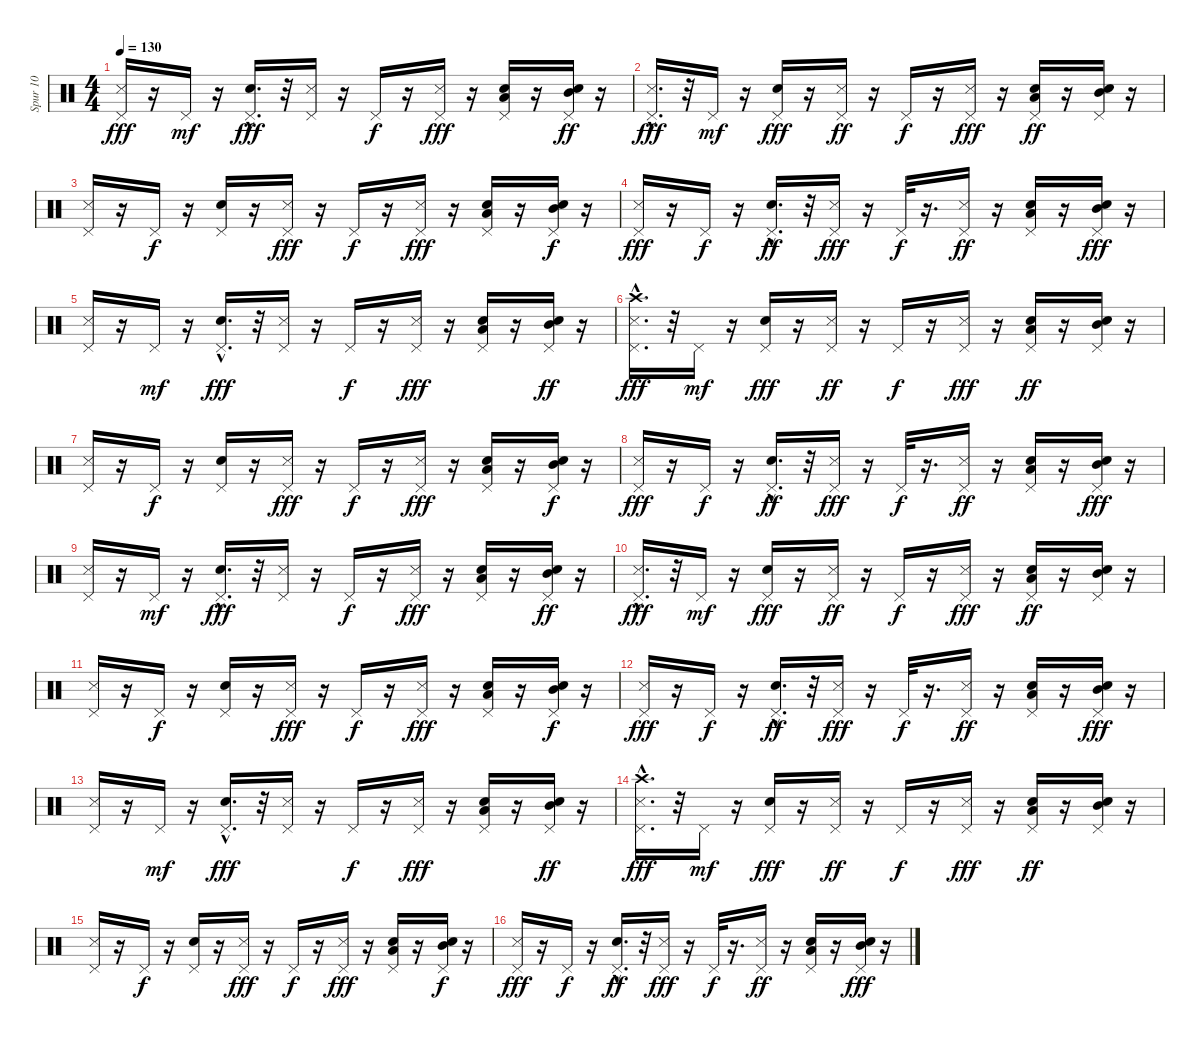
\track ("Spur 10" "Spur 10") {instrument percussion}
\staff {score}
\articulation defaults
\ts (4 4)
\tempo 130
\clef neutral
\ks c
("Pedal Hi-Hat (hit)" "Metronome (hit)").16{dy fff} r.16 "Pedal Hi-Hat (hit)".16{dy mf} r.16 ("Pedal Hi-Hat (hit)" "Snare (hit) 2"{hac}).16{d dy fff} r.32 ("Pedal Hi-Hat (hit)" "Metronome (hit)").16 r.16 "Pedal Hi-Hat (hit)".16{dy f} r.16 ("Pedal Hi-Hat (hit)" "Metronome (hit)").16{dy fff} r.16 ("Low Tom (hit)" "Pedal Hi-Hat (hit)" "Snare (hit) 2").16 r.16 ("Mid Tom (hit)" "Pedal Hi-Hat (hit)" "Snare (hit) 2").16{dy ff} r.16 |
("Pedal Hi-Hat (hit)" "Metronome (hit)"{hac}).16{d dy fff} r.32 "Pedal Hi-Hat (hit)".16{dy mf} r.16 ("Pedal Hi-Hat (hit)" "Snare (hit) 2").16{dy fff} r.16 ("Metronome (hit)" "Pedal Hi-Hat (hit)").16{dy ff} r.16 "Pedal Hi-Hat (hit)".16{dy f} r.16 ("Metronome (hit)" "Pedal Hi-Hat (hit)").16{dy fff} r.16 ("Snare (hit) 2" "Low Tom (hit)" "Pedal Hi-Hat (hit)").16{dy ff} r.16 ("Snare (hit) 2" "Mid Tom (hit)" "Pedal Hi-Hat (hit)").16 r.16 |
("Metronome (hit)" "Pedal Hi-Hat (hit)").16 r.16 "Pedal Hi-Hat (hit)".16{dy f} r.16 ("Snare (hit) 2" "Pedal Hi-Hat (hit)").16 r.16 ("Metronome (hit)" "Pedal Hi-Hat (hit)").16{dy fff} r.16 "Pedal Hi-Hat (hit)".16{dy f} r.16 ("Metronome (hit)" "Pedal Hi-Hat (hit)").16{dy fff} r.16 ("Snare (hit) 2" "Low Tom (hit)" "Pedal Hi-Hat (hit)").16 r.16 ("Snare (hit) 2" "Mid Tom (hit)" "Pedal Hi-Hat (hit)").16{dy f} r.16 |
("Pedal Hi-Hat (hit)" "Metronome (hit)").16{dy fff} r.16 "Pedal Hi-Hat (hit)".16{dy f} r.16 ("Snare (hit) 2"{hac} "Pedal Hi-Hat (hit)").16{d dy ff} r.32 ("Metronome (hit)" "Pedal Hi-Hat (hit)").16{dy fff} r.16 "Pedal Hi-Hat (hit)".32{dy f} r.16{d} ("Metronome (hit)" "Pedal Hi-Hat (hit)").16{dy ff} r.16 ("Low Tom (hit)" "Snare (hit) 2" "Pedal Hi-Hat (hit)").16 r.16 ("Mid Tom (hit)" "Snare (hit) 2" "Pedal Hi-Hat (hit)").16{dy fff} r.16 |
("Pedal Hi-Hat (hit)" "Metronome (hit)").16 r.16 "Pedal Hi-Hat (hit)".16{dy mf} r.16 ("Pedal Hi-Hat (hit)" "Snare (hit) 2"{hac}).16{d dy fff} r.32 ("Pedal Hi-Hat (hit)" "Metronome (hit)").16 r.16 "Pedal Hi-Hat (hit)".16{dy f} r.16 ("Pedal Hi-Hat (hit)" "Metronome (hit)").16{dy fff} r.16 ("Low Tom (hit)" "Pedal Hi-Hat (hit)" "Snare (hit) 2").16 r.16 ("Mid Tom (hit)" "Pedal Hi-Hat (hit)" "Snare (hit) 2").16{dy ff} r.16 |
("Crash high (hit)" "Pedal Hi-Hat (hit)" "Metronome (hit)"{hac}).16{d dy fff} r.32 "Pedal Hi-Hat (hit)".16{dy mf} r.16 ("Pedal Hi-Hat (hit)" "Snare (hit) 2").16{dy fff} r.16 ("Metronome (hit)" "Pedal Hi-Hat (hit)").16{dy ff} r.16 "Pedal Hi-Hat (hit)".16{dy f} r.16 ("Metronome (hit)" "Pedal Hi-Hat (hit)").16{dy fff} r.16 ("Snare (hit) 2" "Low Tom (hit)" "Pedal Hi-Hat (hit)").16{dy ff} r.16 ("Snare (hit) 2" "Mid Tom (hit)" "Pedal Hi-Hat (hit)").16 r.16 |
("Metronome (hit)" "Pedal Hi-Hat (hit)").16 r.16 "Pedal Hi-Hat (hit)".16{dy f} r.16 ("Snare (hit) 2" "Pedal Hi-Hat (hit)").16 r.16 ("Metronome (hit)" "Pedal Hi-Hat (hit)").16{dy fff} r.16 "Pedal Hi-Hat (hit)".16{dy f} r.16 ("Metronome (hit)" "Pedal Hi-Hat (hit)").16{dy fff} r.16 ("Snare (hit) 2" "Low Tom (hit)" "Pedal Hi-Hat (hit)").16 r.16 ("Snare (hit) 2" "Mid Tom (hit)" "Pedal Hi-Hat (hit)").16{dy f} r.16 |
("Pedal Hi-Hat (hit)" "Metronome (hit)").16{dy fff} r.16 "Pedal Hi-Hat (hit)".16{dy f} r.16 ("Snare (hit) 2"{hac} "Pedal Hi-Hat (hit)").16{d dy ff} r.32 ("Metronome (hit)" "Pedal Hi-Hat (hit)").16{dy fff} r.16 "Pedal Hi-Hat (hit)".32{dy f} r.16{d} ("Metronome (hit)" "Pedal Hi-Hat (hit)").16{dy ff} r.16 ("Low Tom (hit)" "Snare (hit) 2" "Pedal Hi-Hat (hit)").16 r.16 ("Mid Tom (hit)" "Snare (hit) 2" "Pedal Hi-Hat (hit)").16{dy fff} r.16 |
("Pedal Hi-Hat (hit)" "Metronome (hit)").16 r.16 "Pedal Hi-Hat (hit)".16{dy mf} r.16 ("Pedal Hi-Hat (hit)" "Snare (hit) 2"{hac}).16{d dy fff} r.32 ("Pedal Hi-Hat (hit)" "Metronome (hit)").16 r.16 "Pedal Hi-Hat (hit)".16{dy f} r.16 ("Pedal Hi-Hat (hit)" "Metronome (hit)").16{dy fff} r.16 ("Low Tom (hit)" "Pedal Hi-Hat (hit)" "Snare (hit) 2").16 r.16 ("Mid Tom (hit)" "Pedal Hi-Hat (hit)" "Snare (hit) 2").16{dy ff} r.16 |
("Pedal Hi-Hat (hit)" "Metronome (hit)"{hac}).16{d dy fff} r.32 "Pedal Hi-Hat (hit)".16{dy mf} r.16 ("Pedal Hi-Hat (hit)" "Snare (hit) 2").16{dy fff} r.16 ("Metronome (hit)" "Pedal Hi-Hat (hit)").16{dy ff} r.16 "Pedal Hi-Hat (hit)".16{dy f} r.16 ("Metronome (hit)" "Pedal Hi-Hat (hit)").16{dy fff} r.16 ("Snare (hit) 2" "Low Tom (hit)" "Pedal Hi-Hat (hit)").16{dy ff} r.16 ("Snare (hit) 2" "Mid Tom (hit)" "Pedal Hi-Hat (hit)").16 r.16 |
("Metronome (hit)" "Pedal Hi-Hat (hit)").16 r.16 "Pedal Hi-Hat (hit)".16{dy f} r.16 ("Snare (hit) 2" "Pedal Hi-Hat (hit)").16 r.16 ("Metronome (hit)" "Pedal Hi-Hat (hit)").16{dy fff} r.16 "Pedal Hi-Hat (hit)".16{dy f} r.16 ("Metronome (hit)" "Pedal Hi-Hat (hit)").16{dy fff} r.16 ("Snare (hit) 2" "Low Tom (hit)" "Pedal Hi-Hat (hit)").16 r.16 ("Snare (hit) 2" "Mid Tom (hit)" "Pedal Hi-Hat (hit)").16{dy f} r.16 |
("Pedal Hi-Hat (hit)" "Metronome (hit)").16{dy fff} r.16 "Pedal Hi-Hat (hit)".16{dy f} r.16 ("Snare (hit) 2"{hac} "Pedal Hi-Hat (hit)").16{d dy ff} r.32 ("Metronome (hit)" "Pedal Hi-Hat (hit)").16{dy fff} r.16 "Pedal Hi-Hat (hit)".32{dy f} r.16{d} ("Metronome (hit)" "Pedal Hi-Hat (hit)").16{dy ff} r.16 ("Low Tom (hit)" "Snare (hit) 2" "Pedal Hi-Hat (hit)").16 r.16 ("Mid Tom (hit)" "Snare (hit) 2" "Pedal Hi-Hat (hit)").16{dy fff} r.16 |
("Pedal Hi-Hat (hit)" "Metronome (hit)").16 r.16 "Pedal Hi-Hat (hit)".16{dy mf} r.16 ("Pedal Hi-Hat (hit)" "Snare (hit) 2"{hac}).16{d dy fff} r.32 ("Pedal Hi-Hat (hit)" "Metronome (hit)").16 r.16 "Pedal Hi-Hat (hit)".16{dy f} r.16 ("Pedal Hi-Hat (hit)" "Metronome (hit)").16{dy fff} r.16 ("Low Tom (hit)" "Pedal Hi-Hat (hit)" "Snare (hit) 2").16 r.16 ("Mid Tom (hit)" "Pedal Hi-Hat (hit)" "Snare (hit) 2").16{dy ff} r.16 |
("Crash high (hit)" "Pedal Hi-Hat (hit)" "Metronome (hit)"{hac}).16{d dy fff} r.32 "Pedal Hi-Hat (hit)".16{dy mf} r.16 ("Pedal Hi-Hat (hit)" "Snare (hit) 2").16{dy fff} r.16 ("Metronome (hit)" "Pedal Hi-Hat (hit)").16{dy ff} r.16 "Pedal Hi-Hat (hit)".16{dy f} r.16 ("Metronome (hit)" "Pedal Hi-Hat (hit)").16{dy fff} r.16 ("Snare (hit) 2" "Low Tom (hit)" "Pedal Hi-Hat (hit)").16{dy ff} r.16 ("Snare (hit) 2" "Mid Tom (hit)" "Pedal Hi-Hat (hit)").16 r.16 |
("Metronome (hit)" "Pedal Hi-Hat (hit)").16 r.16 "Pedal Hi-Hat (hit)".16{dy f} r.16 ("Snare (hit) 2" "Pedal Hi-Hat (hit)").16 r.16 ("Metronome (hit)" "Pedal Hi-Hat (hit)").16{dy fff} r.16 "Pedal Hi-Hat (hit)".16{dy f} r.16 ("Metronome (hit)" "Pedal Hi-Hat (hit)").16{dy fff} r.16 ("Snare (hit) 2" "Low Tom (hit)" "Pedal Hi-Hat (hit)").16 r.16 ("Snare (hit) 2" "Mid Tom (hit)" "Pedal Hi-Hat (hit)").16{dy f} r.16 |
("Pedal Hi-Hat (hit)" "Metronome (hit)").16{dy fff} r.16 "Pedal Hi-Hat (hit)".16{dy f} r.16 ("Snare (hit) 2"{hac} "Pedal Hi-Hat (hit)").16{d dy ff} r.32 ("Metronome (hit)" "Pedal Hi-Hat (hit)").16{dy fff} r.16 "Pedal Hi-Hat (hit)".32{dy f} r.16{d} ("Metronome (hit)" "Pedal Hi-Hat (hit)").16{dy ff} r.16 ("Low Tom (hit)" "Snare (hit) 2" "Pedal Hi-Hat (hit)").16 r.16 ("Mid Tom (hit)" "Snare (hit) 2" "Pedal Hi-Hat (hit)").16{dy fff} r.16
